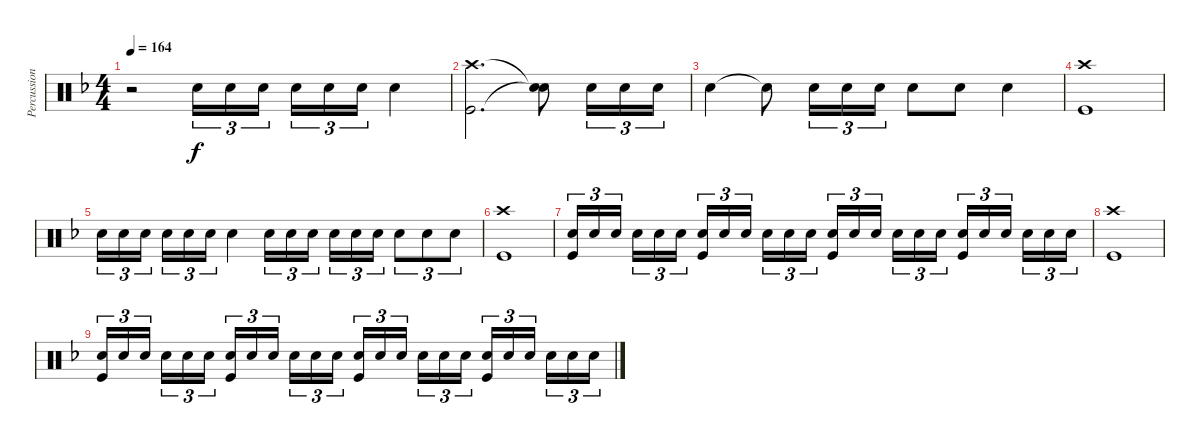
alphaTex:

\track ("Percussions" "Percussion") {instrument percussion}
\staff {score}
\articulation defaults
\ts (4 4)
\tempo 164
\clef neutral
\ks dminor
r.2{dy f} "Electric Snare (hit)".16{tu (3 2)} "Electric Snare (hit)".16{tu (3 2)} "Electric Snare (hit)".16{tu (3 2) beam splitsecondary} "Electric Snare (hit)".16{tu (3 2)} "Electric Snare (hit)".16{tu (3 2)} "Electric Snare (hit)".16{tu (3 2)} "Electric Snare (hit)".4 |
("Crash high (hit)" "Kick (hit)").2{d} ("Snare (hit)"{t} "Snare (hit)"{t}).8 "Electric Snare (hit)".16{tu (3 2)} "Electric Snare (hit)".16{tu (3 2)} "Electric Snare (hit)".16{tu (3 2)} |
"Electric Snare (hit)".4 "Snare (hit)"{t}.8 "Electric Snare (hit)".16{tu (3 2)} "Electric Snare (hit)".16{tu (3 2)} "Electric Snare (hit)".16{tu (3 2)} "Electric Snare (hit)".8 "Electric Snare (hit)".8 "Electric Snare (hit)".4 |
("Crash high (hit)" "Kick (hit)").1 |
"Electric Snare (hit)".16{tu (3 2)} "Electric Snare (hit)".16{tu (3 2)} "Electric Snare (hit)".16{tu (3 2) beam splitsecondary} "Electric Snare (hit)".16{tu (3 2)} "Electric Snare (hit)".16{tu (3 2)} "Electric Snare (hit)".16{tu (3 2)} "Electric Snare (hit)".4 "Electric Snare (hit)".16{tu (3 2)} "Electric Snare (hit)".16{tu (3 2)} "Electric Snare (hit)".16{tu (3 2) beam splitsecondary} "Electric Snare (hit)".16{tu (3 2)} "Electric Snare (hit)".16{tu (3 2)} "Electric Snare (hit)".16{tu (3 2)} "Electric Snare (hit)".8{tu (3 2)} "Electric Snare (hit)".8{tu (3 2)} "Electric Snare (hit)".8{tu (3 2)} |
("Crash high (hit)" "Kick (hit)").1 |
("Electric Snare (hit)" "Kick (hit)").16{tu (3 2)} "Electric Snare (hit)".16{tu (3 2)} "Electric Snare (hit)".16{tu (3 2) beam splitsecondary} "Electric Snare (hit)".16{tu (3 2)} "Electric Snare (hit)".16{tu (3 2)} "Electric Snare (hit)".16{tu (3 2)} ("Electric Snare (hit)" "Kick (hit)").16{tu (3 2)} "Electric Snare (hit)".16{tu (3 2)} "Electric Snare (hit)".16{tu (3 2) beam splitsecondary} "Electric Snare (hit)".16{tu (3 2)} "Electric Snare (hit)".16{tu (3 2)} "Electric Snare (hit)".16{tu (3 2)} ("Electric Snare (hit)" "Kick (hit)").16{tu (3 2)} "Electric Snare (hit)".16{tu (3 2)} "Electric Snare (hit)".16{tu (3 2) beam splitsecondary} "Electric Snare (hit)".16{tu (3 2)} "Electric Snare (hit)".16{tu (3 2)} "Electric Snare (hit)".16{tu (3 2)} ("Electric Snare (hit)" "Kick (hit)").16{tu (3 2)} "Electric Snare (hit)".16{tu (3 2)} "Electric Snare (hit)".16{tu (3 2) beam splitsecondary} "Electric Snare (hit)".16{tu (3 2)} "Electric Snare (hit)".16{tu (3 2)} "Electric Snare (hit)".16{tu (3 2)} |
("Crash high (hit)" "Kick (hit)").1 |
("Electric Snare (hit)" "Kick (hit)").16{tu (3 2)} "Electric Snare (hit)".16{tu (3 2)} "Electric Snare (hit)".16{tu (3 2) beam splitsecondary} "Electric Snare (hit)".16{tu (3 2)} "Electric Snare (hit)".16{tu (3 2)} "Electric Snare (hit)".16{tu (3 2)} ("Electric Snare (hit)" "Kick (hit)").16{tu (3 2)} "Electric Snare (hit)".16{tu (3 2)} "Electric Snare (hit)".16{tu (3 2) beam splitsecondary} "Electric Snare (hit)".16{tu (3 2)} "Electric Snare (hit)".16{tu (3 2)} "Electric Snare (hit)".16{tu (3 2)} ("Electric Snare (hit)" "Kick (hit)").16{tu (3 2)} "Electric Snare (hit)".16{tu (3 2)} "Electric Snare (hit)".16{tu (3 2) beam splitsecondary} "Electric Snare (hit)".16{tu (3 2)} "Electric Snare (hit)".16{tu (3 2)} "Electric Snare (hit)".16{tu (3 2)} ("Electric Snare (hit)" "Kick (hit)").16{tu (3 2)} "Electric Snare (hit)".16{tu (3 2)} "Electric Snare (hit)".16{tu (3 2) beam splitsecondary} "Electric Snare (hit)".16{tu (3 2)} "Electric Snare (hit)".16{tu (3 2)} "Electric Snare (hit)".16{tu (3 2)}
